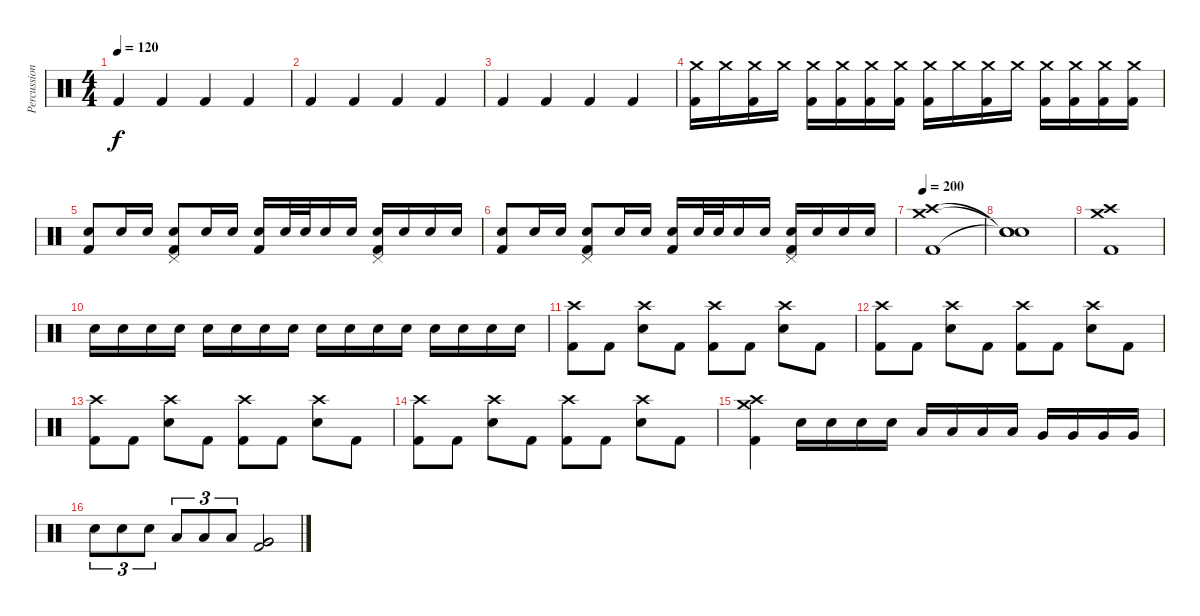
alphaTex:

\track ("Percussion" "Percussion") {instrument percussion}
\staff {score}
\articulation defaults
\ts (4 4)
\tempo 120
\clef neutral
\ks c "Kick (hit) 2".4{dy f} "Kick (hit) 2".4 "Kick (hit) 2".4 "Kick (hit) 2".4
|
"Kick (hit) 2".4 "Kick (hit) 2".4 "Kick (hit) 2".4 "Kick (hit) 2".4 |
"Kick (hit) 2".4 "Kick (hit) 2".4 "Kick (hit) 2".4 "Kick (hit) 2".4 |
("Crash medium (hit)" "Kick (hit) 2").16 "Crash medium (hit)".16 ("Crash medium (hit)" "Kick (hit) 2").16 "Crash medium (hit)".16 ("Crash medium (hit)" "Kick (hit) 2").16 ("Crash medium (hit)" "Kick (hit) 2").16 ("Crash medium (hit)" "Kick (hit) 2").16 ("Crash medium (hit)" "Kick (hit) 2").16 ("Crash medium (hit)" "Kick (hit) 2").16 "Crash medium (hit)".16 ("Crash medium (hit)" "Kick (hit) 2").16 "Crash medium (hit)".16 ("Crash medium (hit)" "Kick (hit) 2").16 ("Crash medium (hit)" "Kick (hit) 2").16 ("Crash medium (hit)" "Kick (hit) 2").16 ("Crash medium (hit)" "Kick (hit) 2").16 |
("Electric Snare (hit)" "Kick (hit) 2").8 "Electric Snare (hit)".16 "Electric Snare (hit)".16 ("Electric Snare (hit)" "Kick (hit) 2" "Pedal Hi-Hat (hit)").8 "Electric Snare (hit)".16 "Electric Snare (hit)".16 ("Electric Snare (hit)" "Kick (hit) 2").16 "Electric Snare (hit)".32 "Electric Snare (hit)".32 "Electric Snare (hit)".16 "Electric Snare (hit)".16 ("Electric Snare (hit)" "Kick (hit) 2" "Pedal Hi-Hat (hit)").16 "Electric Snare (hit)".16 "Electric Snare (hit)".16 "Electric Snare (hit)".16 |
("Electric Snare (hit)" "Kick (hit) 2").8 "Electric Snare (hit)".16 "Electric Snare (hit)".16 ("Electric Snare (hit)" "Kick (hit) 2" "Pedal Hi-Hat (hit)").8 "Electric Snare (hit)".16 "Electric Snare (hit)".16 ("Electric Snare (hit)" "Kick (hit) 2").16 "Electric Snare (hit)".32 "Electric Snare (hit)".32 "Electric Snare (hit)".16 "Electric Snare (hit)".16 ("Electric Snare (hit)" "Kick (hit) 2" "Pedal Hi-Hat (hit)").16 "Electric Snare (hit)".16 "Electric Snare (hit)".16 "Electric Snare (hit)".16 |
\tempo 200
("Crash medium (hit)" "Crash high (hit)" "Kick (hit) 2").1 |
("Snare (hit)"{t} "Snare (hit)"{t} "Snare (hit)"{t}).1 |
("Crash medium (hit)" "Crash high (hit)" "Kick (hit) 2").1 |
"Electric Snare (hit)".16 "Electric Snare (hit)".16 "Electric Snare (hit)".16 "Electric Snare (hit)".16 "Electric Snare (hit)".16 "Electric Snare (hit)".16 "Electric Snare (hit)".16 "Electric Snare (hit)".16 "Electric Snare (hit)".16 "Electric Snare (hit)".16 "Electric Snare (hit)".16 "Electric Snare (hit)".16 "Electric Snare (hit)".16 "Electric Snare (hit)".16 "Electric Snare (hit)".16 "Electric Snare (hit)".16 |
("Crash high (hit)" "Kick (hit) 2").8 "Kick (hit) 2".8 ("Crash high (hit)" "Electric Snare (hit)").8 "Kick (hit) 2".8 ("Crash high (hit)" "Kick (hit) 2").8 "Kick (hit) 2".8 ("Crash high (hit)" "Electric Snare (hit)").8 "Kick (hit) 2".8 |
("Crash high (hit)" "Kick (hit) 2").8 "Kick (hit) 2".8 ("Crash high (hit)" "Electric Snare (hit)").8 "Kick (hit) 2".8 ("Crash high (hit)" "Kick (hit) 2").8 "Kick (hit) 2".8 ("Crash high (hit)" "Electric Snare (hit)").8 "Kick (hit) 2".8 |
("Crash high (hit)" "Kick (hit) 2").8 "Kick (hit) 2".8 ("Crash high (hit)" "Electric Snare (hit)").8 "Kick (hit) 2".8 ("Crash high (hit)" "Kick (hit) 2").8 "Kick (hit) 2".8 ("Crash high (hit)" "Electric Snare (hit)").8 "Kick (hit) 2".8 |
("Crash high (hit)" "Kick (hit) 2").8 "Kick (hit) 2".8 ("Crash high (hit)" "Electric Snare (hit)").8 "Kick (hit) 2".8 ("Crash high (hit)" "Kick (hit) 2").8 "Kick (hit) 2".8 ("Crash high (hit)" "Electric Snare (hit)").8 "Kick (hit) 2".8 |
("Crash medium (hit)" "Crash high (hit)" "Kick (hit) 2").4 "Electric Snare (hit)".16 "Electric Snare (hit)".16 "Electric Snare (hit)".16 "Electric Snare (hit)".16 "Low Tom (hit)".16 "Low Tom (hit)".16 "Low Tom (hit)".16 "Low Tom (hit)".16 "Very Low Tom (hit)".16 "Very Low Tom (hit)".16 "Very Low Tom (hit)".16 "Very Low Tom (hit)".16 |
"Electric Snare (hit)".8{tu (3 2)} "Electric Snare (hit)".8{tu (3 2)} "Electric Snare (hit)".8{tu (3 2)} "Low Tom (hit)".8{tu (3 2)} "Low Tom (hit)".8{tu (3 2)} "Low Tom (hit)".8{tu (3 2)} ("Very Low Tom (hit)" "Very Low Tom (hit)" "Kick (hit) 2").2
